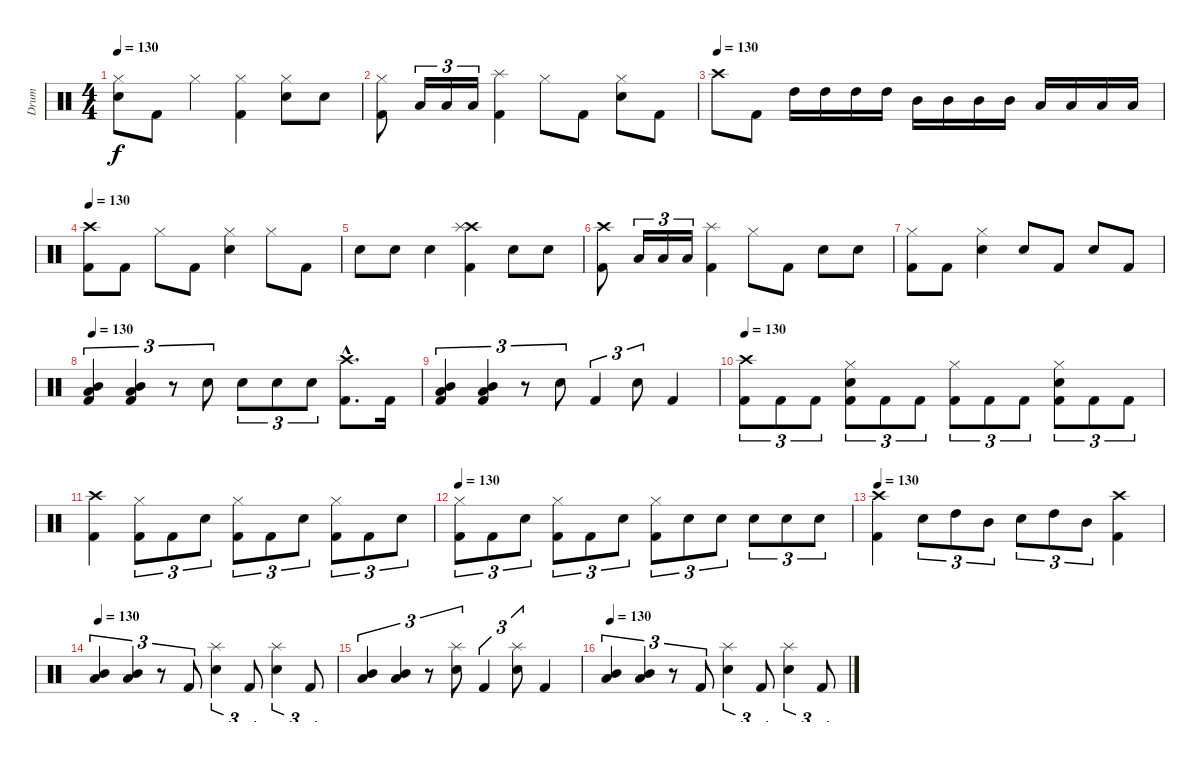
\track ("Drum" "Drum") {instrument percussion}
\staff {score}
\articulation defaults
\ts (4 4)
\tempo 130
\clef neutral
\ks c
("Hi-Hat (closed)" "Electric Snare (hit)").8{dy f} "Kick (hit) 2".8 "Hi-Hat (closed)".4 ("Hi-Hat (closed)" "Kick (hit) 2").4 ("Hi-Hat (closed)" "Electric Snare (hit)").8 "Electric Snare (hit)".8 |
("Hi-Hat (closed)" "Kick (hit) 2").8 "Low Floor Tom (hit)".16{tu (3 2)} "Low Floor Tom (hit)".16{tu (3 2)} "Low Floor Tom (hit)".16{tu (3 2)} ("Splash (hit)" "Kick (hit) 2").4 "Hi-Hat (closed)".8 "Kick (hit) 2".8 ("Hi-Hat (closed)" "Electric Snare (hit)").8 "Kick (hit) 2".8 |
\tempo (130)
"Crash high (hit)".8 "Kick (hit) 2".8 "High Tom (hit)".16 "High Tom (hit)".16 "High Tom (hit)".16 "High Tom (hit)".16 "Mid Tom (hit)".16 "Mid Tom (hit)".16 "Mid Tom (hit)".16 "Mid Tom (hit)".16 "Low Tom (hit)".16 "Low Tom (hit)".16 "Low Tom (hit)".16 "Low Tom (hit)".16 |
\tempo 130
("Crash high (hit)" "Kick (hit) 2").8 "Kick (hit) 2".8 "Hi-Hat (closed)".8 "Kick (hit) 2".8 ("Hi-Hat (closed)" "Electric Snare (hit)").4 "Hi-Hat (closed)".8 "Kick (hit) 2".8 |
"Electric Snare (hit)".8 "Electric Snare (hit)".8 "Electric Snare (hit)".4 ("Crash high (hit)" "Splash (hit)" "Kick (hit) 2").4 "Electric Snare (hit)".8 "Electric Snare (hit)".8 |
("Crash high (hit)" "Kick (hit) 2").8 "Low Floor Tom (hit)".16{tu (3 2)} "Low Floor Tom (hit)".16{tu (3 2)} "Low Floor Tom (hit)".16{tu (3 2)} ("Splash (hit)" "Kick (hit) 2").4 "Hi-Hat (closed)".8 "Kick (hit) 2".8 "Electric Snare (hit)".8 "Electric Snare (hit)".8 |
("Hi-Hat (closed)" "Kick (hit) 2").8 "Kick (hit) 2".8 ("Hi-Hat (closed)" "Electric Snare (hit)").4 "Electric Snare (hit)".8 "Kick (hit) 2".8 "Electric Snare (hit)".8 "Kick (hit) 2".8 |
\tempo 130
("Mid Tom (hit)" "Low Tom (hit)" "Kick (hit) 2").4{tu (3 2)} ("Mid Tom (hit)" "Low Tom (hit)" "Kick (hit) 2").4{tu (3 2)} r.8{tu (3 2)} "Electric Snare (hit)".8{tu (3 2)} "Electric Snare (hit)".8{tu (3 2)} "Electric Snare (hit)".8{tu (3 2)} "Electric Snare (hit)".8{tu (3 2)} ("Crash high (hit)"{hac} "Kick (hit) 2"{hac}).8{d} "Kick (hit) 2".16 |
("Mid Tom (hit)" "Low Tom (hit)" "Kick (hit) 2").4{tu (3 2)} ("Mid Tom (hit)" "Low Tom (hit)" "Kick (hit) 2").4{tu (3 2)} r.8{tu (3 2)} "Electric Snare (hit)".8{tu (3 2)} "Kick (hit) 2".4{tu (3 2)} "Electric Snare (hit)".8{tu (3 2)} "Kick (hit) 2".4 |
\tempo 130
("Crash high (hit)" "Kick (hit) 2").8{tu (3 2)} "Kick (hit) 2".8{tu (3 2)} "Kick (hit) 2".8{tu (3 2)} ("Hi-Hat (closed)" "Electric Snare (hit)" "Kick (hit) 2").8{tu (3 2)} "Kick (hit) 2".8{tu (3 2)} "Kick (hit) 2".8{tu (3 2)} ("Hi-Hat (closed)" "Kick (hit) 2").8{tu (3 2)} "Kick (hit) 2".8{tu (3 2)} "Kick (hit) 2".8{tu (3 2)} ("Hi-Hat (closed)" "Electric Snare (hit)" "Kick (hit) 2").8{tu (3 2)} "Kick (hit) 2".8{tu (3 2)} "Kick (hit) 2".8{tu (3 2)} |
("Crash high (hit)" "Kick (hit) 2").4 ("Hi-Hat (closed)" "Kick (hit) 2").8{tu (3 2)} "Kick (hit) 2".8{tu (3 2)} "Electric Snare (hit)".8{tu (3 2)} ("Hi-Hat (closed)" "Kick (hit) 2").8{tu (3 2)} "Kick (hit) 2".8{tu (3 2)} "Electric Snare (hit)".8{tu (3 2)} ("Hi-Hat (closed)" "Kick (hit) 2").8{tu (3 2)} "Kick (hit) 2".8{tu (3 2)} "Electric Snare (hit)".8{tu (3 2)} |
\tempo 130
("Hi-Hat (closed)" "Kick (hit) 2").8{tu (3 2)} "Kick (hit) 2".8{tu (3 2)} "Electric Snare (hit)".8{tu (3 2)} ("Hi-Hat (closed)" "Kick (hit) 2").8{tu (3 2)} "Kick (hit) 2".8{tu (3 2)} "Electric Snare (hit)".8{tu (3 2)} ("Hi-Hat (closed)" "Kick (hit) 2").8{tu (3 2)} "Electric Snare (hit)".8{tu (3 2)} "Electric Snare (hit)".8{tu (3 2)} "Electric Snare (hit)".8{tu (3 2)} "Electric Snare (hit)".8{tu (3 2)} "Electric Snare (hit)".8{tu (3 2)} |
\tempo 130
("Crash high (hit)" "Kick (hit) 2").4 "Electric Snare (hit)".8{tu (3 2)} "High Tom (hit)".8{tu (3 2)} "Mid Tom (hit)".8{tu (3 2)} "Electric Snare (hit)".8{tu (3 2)} "High Tom (hit)".8{tu (3 2)} "Mid Tom (hit)".8{tu (3 2)} ("Crash high (hit)" "Kick (hit) 2").4 |
\tempo 130
("Mid Tom (hit)" "Low Tom (hit)").4{tu (3 2)} ("Mid Tom (hit)" "Low Tom (hit)").4{tu (3 2)} r.8{tu (3 2)} "Kick (hit) 2".8{tu (3 2)} ("Splash (hit)" "Electric Snare (hit)").4{tu (3 2)} "Kick (hit) 2".8{tu (3 2)} ("Splash (hit)" "Electric Snare (hit)").4{tu (3 2)} "Kick (hit) 2".8{tu (3 2)} |
("Mid Tom (hit)" "Low Tom (hit)").4{tu (3 2)} ("Mid Tom (hit)" "Low Tom (hit)").4{tu (3 2)} r.8{tu (3 2)} ("Splash (hit)" "Electric Snare (hit)").8{tu (3 2)} "Kick (hit) 2".4{tu (3 2)} ("Splash (hit)" "Electric Snare (hit)").8{tu (3 2)} "Kick (hit) 2".4 |
\tempo 130
("Mid Tom (hit)" "Low Tom (hit)").4{tu (3 2)} ("Mid Tom (hit)" "Low Tom (hit)").4{tu (3 2)} r.8{tu (3 2)} "Kick (hit) 2".8{tu (3 2)} ("Splash (hit)" "Electric Snare (hit)").4{tu (3 2)} "Kick (hit) 2".8{tu (3 2)} ("Splash (hit)" "Electric Snare (hit)").4{tu (3 2)} "Kick (hit) 2".8{tu (3 2)}
